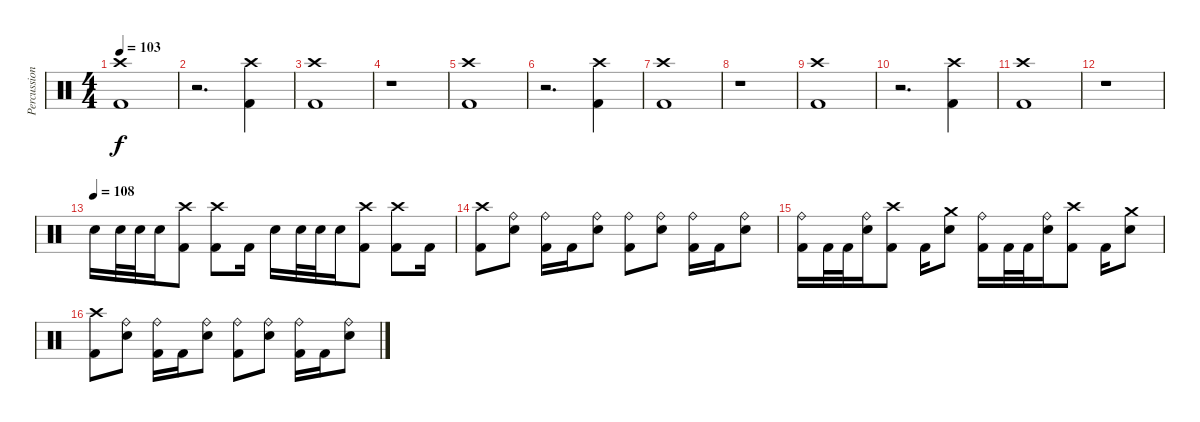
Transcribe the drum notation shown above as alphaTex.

\track ("Percussion" "Percussion") {solo instrument percussion}
\staff {score}
\articulation defaults
\ts (4 4)
\tempo 103
\clef neutral
\ks c
("Crash high (hit)" "Kick (hit) 2").1{dy f} |
r.2{d} ("Crash high (hit)" "Kick (hit) 2").4 |
("Crash high (hit)" "Kick (hit) 2").1 |
r.1 |
("Crash high (hit)" "Kick (hit) 2").1 |
r.2{d} ("Crash high (hit)" "Kick (hit) 2").4 |
("Crash high (hit)" "Kick (hit) 2").1 |
r.1 |
("Crash high (hit)" "Kick (hit) 2").1 |
r.2{d} ("Crash high (hit)" "Kick (hit) 2").4 |
("Crash high (hit)" "Kick (hit) 2").1 |
r.1 |
\tempo (108)
"Snare (hit) 2".16 "Snare (hit) 2".32 "Snare (hit) 2".32 "Snare (hit) 2".16 ("Crash high (hit)" "Kick (hit) 2").8 ("Crash high (hit)" "Kick (hit) 2").8 "Kick (hit) 2".16 "Snare (hit) 2".16 "Snare (hit) 2".32 "Snare (hit) 2".32 "Snare (hit) 2".16 ("Crash high (hit)" "Kick (hit) 2").8 ("Crash high (hit)" "Kick (hit) 2").8 "Kick (hit) 2".16 |
("Crash high (hit)" "Kick (hit) 2").8 ("Ride (bell)" "Snare (hit) 2").8 ("Ride (bell)" "Kick (hit) 2").16 "Kick (hit) 2".16 ("Ride (bell)" "Snare (hit) 2").8 ("Ride (bell)" "Kick (hit) 2").8 ("Ride (bell)" "Snare (hit) 2").8 ("Ride (bell)" "Kick (hit) 2").16 "Kick (hit) 2".16 ("Ride (bell)" "Snare (hit) 2").8 |
("Ride (bell)" "Kick (hit) 2").16 "Kick (hit) 2".32 "Kick (hit) 2".32 ("Ride (bell)" "Snare (hit) 2").16 ("Crash high (hit)" "Kick (hit) 2").8 "Kick (hit) 2".16 ("Crash medium (hit)" "Snare (hit) 2").8 ("Ride (bell)" "Kick (hit) 2").16 "Kick (hit) 2".32 "Kick (hit) 2".32 ("Ride (bell)" "Snare (hit) 2").16 ("Crash high (hit)" "Kick (hit) 2").8 "Kick (hit) 2".16 ("Crash medium (hit)" "Snare (hit) 2").8 |
("Crash high (hit)" "Kick (hit) 2").8 ("Ride (bell)" "Snare (hit) 2").8 ("Ride (bell)" "Kick (hit) 2").16 "Kick (hit) 2".16 ("Ride (bell)" "Snare (hit) 2").8 ("Ride (bell)" "Kick (hit) 2").8 ("Ride (bell)" "Snare (hit) 2").8 ("Ride (bell)" "Kick (hit) 2").16 "Kick (hit) 2".16 ("Ride (bell)" "Snare (hit) 2").8
